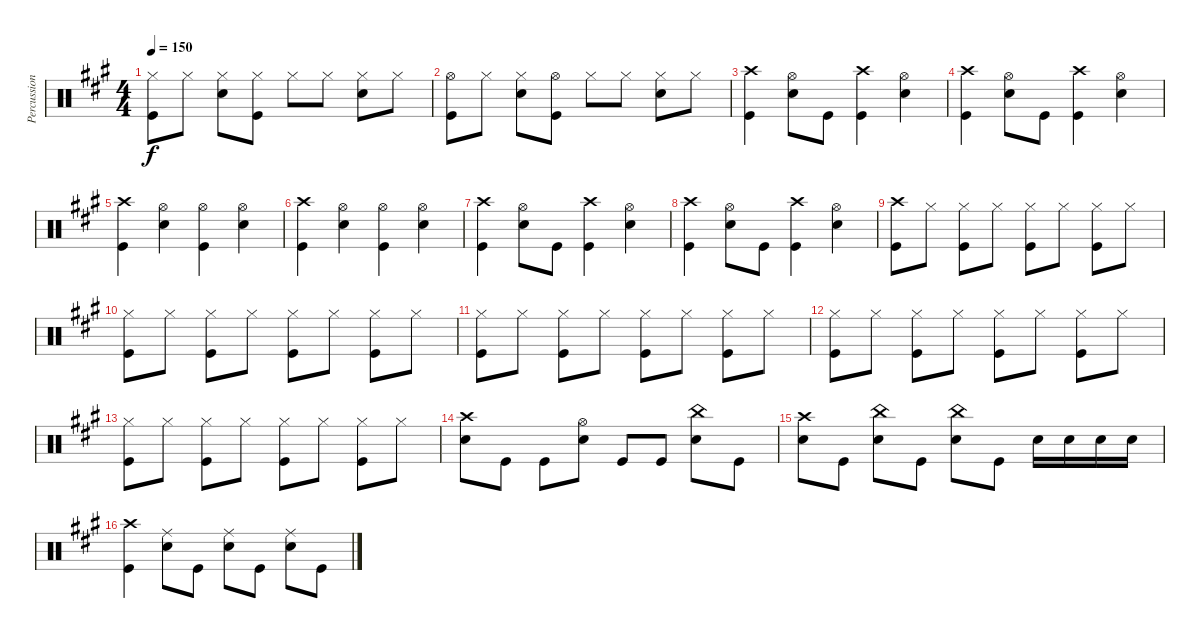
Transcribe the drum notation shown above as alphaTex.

\track ("Percussion" "Percussion") {instrument percussion}
\staff {score}
\articulation defaults
\ts (4 4)
\tempo 150
\clef neutral
\ks a
("Kick (hit)" "Hi-Hat (closed)").8{dy f} "Hi-Hat (closed)".8 ("Snare (hit) 2" "Hi-Hat (closed)").8 ("Kick (hit)" "Hi-Hat (closed)").8 "Hi-Hat (closed)".8 "Hi-Hat (closed)".8 ("Snare (hit) 2" "Hi-Hat (closed)").8 "Hi-Hat (closed)".8 |
("Kick (hit)" "Hi-Hat (open)").8 "Hi-Hat (closed)".8 ("Snare (hit) 2" "Hi-Hat (closed)").8 ("Kick (hit)" "Hi-Hat (open)").8 "Hi-Hat (closed)".8 "Hi-Hat (closed)".8 ("Snare (hit) 2" "Hi-Hat (closed)").8 "Hi-Hat (closed)".8 |
("Kick (hit)" "Crash high (hit)").4 ("Snare (hit) 2" "Hi-Hat (open)").8 "Kick (hit)".8 ("Kick (hit)" "Crash high (hit)").4 ("Hi-Hat (open)" "Snare (hit) 2").4 |
("Kick (hit)" "Crash high (hit)").4 ("Snare (hit) 2" "Hi-Hat (open)").8 "Kick (hit)".8 ("Kick (hit)" "Crash high (hit)").4 ("Hi-Hat (open)" "Snare (hit) 2").4 |
("Kick (hit)" "Crash high (hit)").4 ("Snare (hit) 2" "Hi-Hat (open)").4 ("Kick (hit)" "Hi-Hat (open)").4 ("Snare (hit) 2" "Hi-Hat (open)").4 |
("Kick (hit)" "Crash high (hit)").4 ("Snare (hit) 2" "Hi-Hat (open)").4 ("Kick (hit)" "Hi-Hat (open)").4 ("Snare (hit) 2" "Hi-Hat (open)").4 |
("Kick (hit)" "Crash high (hit)").4 ("Snare (hit) 2" "Hi-Hat (open)").8 "Kick (hit)".8 ("Kick (hit)" "Crash high (hit)").4 ("Hi-Hat (open)" "Snare (hit) 2").4 |
("Kick (hit)" "Crash high (hit)").4 ("Snare (hit) 2" "Hi-Hat (open)").8 "Kick (hit)".8 ("Kick (hit)" "Crash high (hit)").4 ("Hi-Hat (open)" "Snare (hit) 2").4 |
("Crash high (hit)" "Kick (hit)").8 "Hi-Hat (closed)".8 ("Hi-Hat (closed)" "Kick (hit)").8 "Hi-Hat (closed)".8 ("Hi-Hat (closed)" "Kick (hit)").8 "Hi-Hat (closed)".8 ("Hi-Hat (closed)" "Kick (hit)").8 "Hi-Hat (closed)".8 |
("Hi-Hat (closed)" "Kick (hit)").8 "Hi-Hat (closed)".8 ("Hi-Hat (closed)" "Kick (hit)").8 "Hi-Hat (closed)".8 ("Hi-Hat (closed)" "Kick (hit)").8 "Hi-Hat (closed)".8 ("Hi-Hat (closed)" "Kick (hit)").8 "Hi-Hat (closed)".8 |
("Hi-Hat (closed)" "Kick (hit)").8 "Hi-Hat (closed)".8 ("Hi-Hat (closed)" "Kick (hit)").8 "Hi-Hat (closed)".8 ("Hi-Hat (closed)" "Kick (hit)").8 "Hi-Hat (closed)".8 ("Hi-Hat (closed)" "Kick (hit)").8 "Hi-Hat (closed)".8 |
("Hi-Hat (closed)" "Kick (hit)").8 "Hi-Hat (closed)".8 ("Hi-Hat (closed)" "Kick (hit)").8 "Hi-Hat (closed)".8 ("Hi-Hat (closed)" "Kick (hit)").8 "Hi-Hat (closed)".8 ("Hi-Hat (closed)" "Kick (hit)").8 "Hi-Hat (closed)".8 |
("Hi-Hat (closed)" "Kick (hit)").8 "Hi-Hat (closed)".8 ("Hi-Hat (closed)" "Kick (hit)").8 "Hi-Hat (closed)".8 ("Hi-Hat (closed)" "Kick (hit)").8 "Hi-Hat (closed)".8 ("Hi-Hat (closed)" "Kick (hit)").8 "Hi-Hat (closed)".8 |
("Snare (hit) 2" "Crash high (hit)").8 "Kick (hit)".8 "Kick (hit)".8 ("Snare (hit) 2" "Hi-Hat (open)").8 "Kick (hit)".8 "Kick (hit)".8 ("Snare (hit) 2" "China (hit)").8 "Kick (hit)".8 |
("Snare (hit) 2" "Crash high (hit)").8 "Kick (hit)".8 ("Snare (hit) 2" "China (hit)").8 "Kick (hit)".8 ("Snare (hit) 2" "China (hit)").8 "Kick (hit)".8 "Snare (hit) 2".16 "Snare (hit) 2".16 "Snare (hit) 2".16 "Snare (hit) 2".16 |
("Kick (hit)" "Crash high (hit)").4 ("Snare (hit) 2" "Ride (middle)").8 "Kick (hit)".8 ("Snare (hit) 2" "Ride (middle)").8 "Kick (hit)".8 ("Snare (hit) 2" "Ride (middle)").8 "Kick (hit)".8
